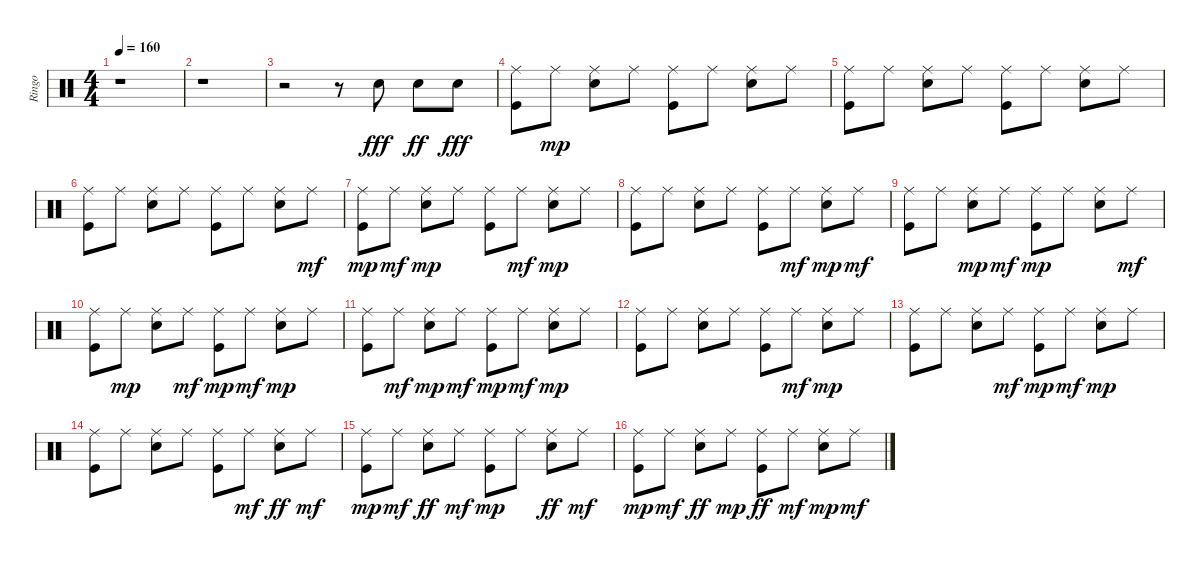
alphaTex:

\track ("Ringo" "Ringo") {instrument percussion}
\staff {score}
\articulation defaults
\ts (4 4)
\tempo 160
\clef neutral
\ks c
r.1{dy fff} |
r.1 |
r.2 r.8 "Electric Snare (hit)".8 "Electric Snare (hit)".8{dy ff} "Electric Snare (hit)".8{dy fff} |
("Ride (middle)" "Kick (hit)").8 "Ride (middle)".8{dy mp} ("Electric Snare (hit)" "Ride (middle)").8 "Ride (middle)".8 ("Kick (hit)" "Ride (middle)").8 "Ride (middle)".8 ("Electric Snare (hit)" "Ride (middle)").8 "Ride (middle)".8 |
("Kick (hit)" "Ride (middle)").8 "Ride (middle)".8 ("Electric Snare (hit)" "Ride (middle)").8 "Ride (middle)".8 ("Kick (hit)" "Ride (middle)").8 "Ride (middle)".8 ("Electric Snare (hit)" "Ride (middle)").8 "Ride (middle)".8 |
("Kick (hit)" "Ride (middle)").8 "Ride (middle)".8 ("Electric Snare (hit)" "Ride (middle)").8 "Ride (middle)".8 ("Kick (hit)" "Ride (middle)").8 "Ride (middle)".8 ("Electric Snare (hit)" "Ride (middle)").8 "Ride (middle)".8{dy mf} |
("Kick (hit)" "Ride (middle)").8{dy mp} "Ride (middle)".8{dy mf} ("Electric Snare (hit)" "Ride (middle)").8{dy mp} "Ride (middle)".8 ("Kick (hit)" "Ride (middle)").8 "Ride (middle)".8{dy mf} ("Electric Snare (hit)" "Ride (middle)").8{dy mp} "Ride (middle)".8 |
("Kick (hit)" "Ride (middle)").8 "Ride (middle)".8 ("Electric Snare (hit)" "Ride (middle)").8 "Ride (middle)".8 ("Kick (hit)" "Ride (middle)").8 "Ride (middle)".8{dy mf} ("Electric Snare (hit)" "Ride (middle)").8{dy mp} "Ride (middle)".8{dy mf} |
("Kick (hit)" "Ride (middle)").8 "Ride (middle)".8 ("Electric Snare (hit)" "Ride (middle)").8{dy mp} "Ride (middle)".8{dy mf} ("Kick (hit)" "Ride (middle)").8{dy mp} "Ride (middle)".8 ("Electric Snare (hit)" "Ride (middle)").8 "Ride (middle)".8{dy mf} |
("Kick (hit)" "Ride (middle)").8 "Ride (middle)".8{dy mp} ("Electric Snare (hit)" "Ride (middle)").8 "Ride (middle)".8{dy mf} ("Kick (hit)" "Ride (middle)").8{dy mp} "Ride (middle)".8{dy mf} ("Electric Snare (hit)" "Ride (middle)").8{dy mp} "Ride (middle)".8 |
("Kick (hit)" "Ride (middle)").8 "Ride (middle)".8{dy mf} ("Electric Snare (hit)" "Ride (middle)").8{dy mp} "Ride (middle)".8{dy mf} ("Kick (hit)" "Ride (middle)").8{dy mp} "Ride (middle)".8{dy mf} ("Electric Snare (hit)" "Ride (middle)").8{dy mp} "Ride (middle)".8 |
("Kick (hit)" "Ride (middle)").8 "Ride (middle)".8 ("Electric Snare (hit)" "Ride (middle)").8 "Ride (middle)".8 ("Kick (hit)" "Ride (middle)").8 "Ride (middle)".8{dy mf} ("Electric Snare (hit)" "Ride (middle)").8{dy mp} "Ride (middle)".8 |
("Kick (hit)" "Ride (middle)").8 "Ride (middle)".8 ("Electric Snare (hit)" "Ride (middle)").8 "Ride (middle)".8{dy mf} ("Kick (hit)" "Ride (middle)").8{dy mp} "Ride (middle)".8{dy mf} ("Electric Snare (hit)" "Ride (middle)").8{dy mp} "Ride (middle)".8 |
("Kick (hit)" "Ride (middle)").8 "Ride (middle)".8 ("Electric Snare (hit)" "Ride (middle)").8 "Ride (middle)".8 ("Kick (hit)" "Ride (middle)").8 "Ride (middle)".8{dy mf} ("Ride (middle)" "Electric Snare (hit)").8{dy ff} "Ride (middle)".8{dy mf} |
("Kick (hit)" "Ride (middle)").8{dy mp} "Ride (middle)".8{dy mf} ("Ride (middle)" "Electric Snare (hit)").8{dy ff} "Ride (middle)".8{dy mf} ("Kick (hit)" "Ride (middle)").8{dy mp} "Ride (middle)".8 ("Ride (middle)" "Electric Snare (hit)").8{dy ff} "Ride (middle)".8{dy mf} |
("Kick (hit)" "Ride (middle)").8{dy mp} "Ride (middle)".8{dy mf} ("Ride (middle)" "Electric Snare (hit)").8{dy ff} "Ride (middle)".8{dy mp} ("Ride (middle)" "Kick (hit)").8{dy ff} "Ride (middle)".8{dy mf} ("Ride (middle)" "Electric Snare (hit)").8{dy mp} "Ride (middle)".8{dy mf}
